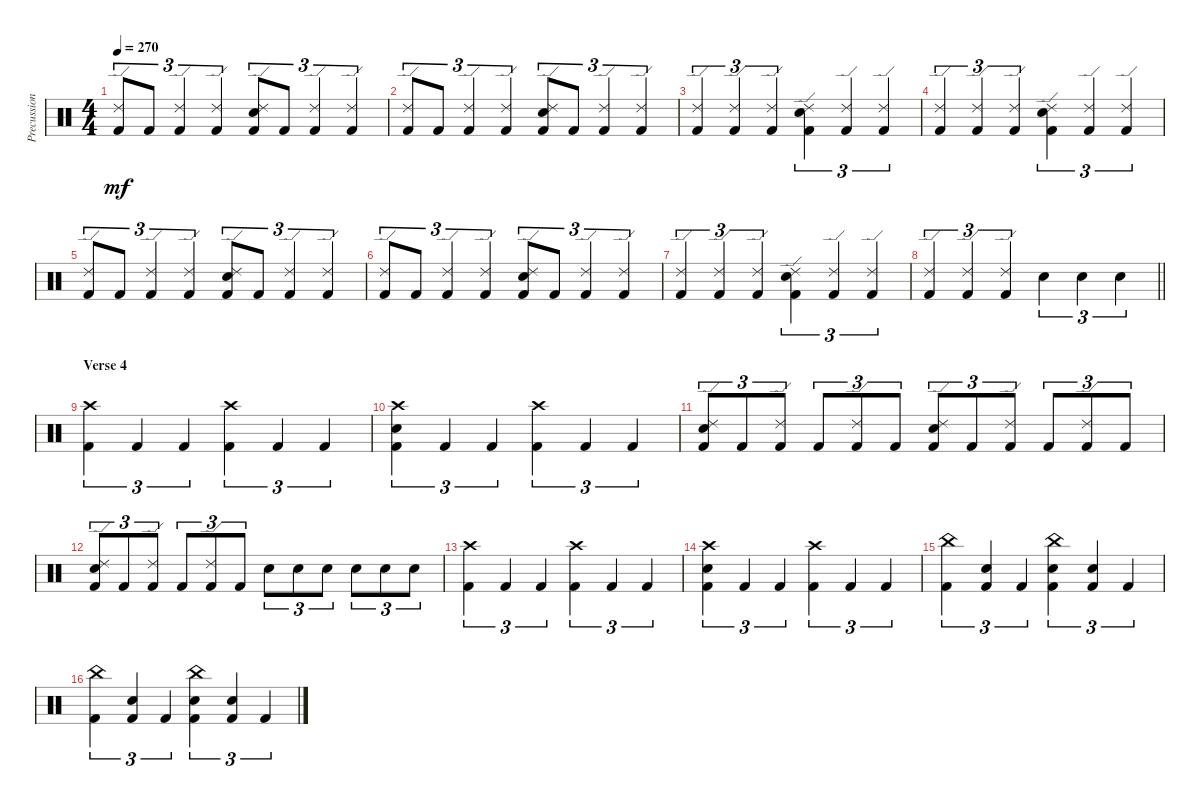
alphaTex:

\track ("Precussion" "Precussion") {instrument percussion}
\staff {score}
\articulation defaults
\ts (4 4)
\tempo 270
\clef neutral
\ks c
("Ride (edge) 2" "Kick (hit) 2").8{tu (3 2) dy mf} "Kick (hit) 2".8{tu (3 2)} ("Ride (edge) 2" "Kick (hit) 2").4{tu (3 2)} ("Ride (edge) 2" "Kick (hit) 2").4{tu (3 2)} ("Ride (edge) 2" "Electric Snare (hit)" "Kick (hit) 2").8{tu (3 2)} "Kick (hit) 2".8{tu (3 2)} ("Ride (edge) 2" "Kick (hit) 2").4{tu (3 2)} ("Ride (edge) 2" "Kick (hit) 2").4{tu (3 2)} |
("Ride (edge) 2" "Kick (hit) 2").8{tu (3 2)} "Kick (hit) 2".8{tu (3 2)} ("Ride (edge) 2" "Kick (hit) 2").4{tu (3 2)} ("Ride (edge) 2" "Kick (hit) 2").4{tu (3 2)} ("Ride (edge) 2" "Electric Snare (hit)" "Kick (hit) 2").8{tu (3 2)} "Kick (hit) 2".8{tu (3 2)} ("Ride (edge) 2" "Kick (hit) 2").4{tu (3 2)} ("Ride (edge) 2" "Kick (hit) 2").4{tu (3 2)} |
("Ride (edge) 2" "Kick (hit) 2").4{tu (3 2)} ("Ride (edge) 2" "Kick (hit) 2").4{tu (3 2)} ("Ride (edge) 2" "Kick (hit) 2").4{tu (3 2)} ("Ride (edge) 2" "Electric Snare (hit)" "Kick (hit) 2").4{tu (3 2)} ("Ride (edge) 2" "Kick (hit) 2").4{tu (3 2)} ("Ride (edge) 2" "Kick (hit) 2").4{tu (3 2)} |
("Ride (edge) 2" "Kick (hit) 2").4{tu (3 2)} ("Ride (edge) 2" "Kick (hit) 2").4{tu (3 2)} ("Ride (edge) 2" "Kick (hit) 2").4{tu (3 2)} ("Ride (edge) 2" "Electric Snare (hit)" "Kick (hit) 2").4{tu (3 2)} ("Ride (edge) 2" "Kick (hit) 2").4{tu (3 2)} ("Ride (edge) 2" "Kick (hit) 2").4{tu (3 2)} |
("Ride (edge) 2" "Kick (hit) 2").8{tu (3 2)} "Kick (hit) 2".8{tu (3 2)} ("Ride (edge) 2" "Kick (hit) 2").4{tu (3 2)} ("Ride (edge) 2" "Kick (hit) 2").4{tu (3 2)} ("Ride (edge) 2" "Electric Snare (hit)" "Kick (hit) 2").8{tu (3 2)} "Kick (hit) 2".8{tu (3 2)} ("Ride (edge) 2" "Kick (hit) 2").4{tu (3 2)} ("Ride (edge) 2" "Kick (hit) 2").4{tu (3 2)} |
("Ride (edge) 2" "Kick (hit) 2").8{tu (3 2)} "Kick (hit) 2".8{tu (3 2)} ("Ride (edge) 2" "Kick (hit) 2").4{tu (3 2)} ("Ride (edge) 2" "Kick (hit) 2").4{tu (3 2)} ("Ride (edge) 2" "Electric Snare (hit)" "Kick (hit) 2").8{tu (3 2)} "Kick (hit) 2".8{tu (3 2)} ("Ride (edge) 2" "Kick (hit) 2").4{tu (3 2)} ("Ride (edge) 2" "Kick (hit) 2").4{tu (3 2)} |
("Ride (edge) 2" "Kick (hit) 2").4{tu (3 2)} ("Ride (edge) 2" "Kick (hit) 2").4{tu (3 2)} ("Ride (edge) 2" "Kick (hit) 2").4{tu (3 2)} ("Ride (edge) 2" "Electric Snare (hit)" "Kick (hit) 2").4{tu (3 2)} ("Ride (edge) 2" "Kick (hit) 2").4{tu (3 2)} ("Ride (edge) 2" "Kick (hit) 2").4{tu (3 2)} |
\barLineRight lightlight
("Ride (edge) 2" "Kick (hit) 2").4{tu (3 2)} ("Ride (edge) 2" "Kick (hit) 2").4{tu (3 2)} ("Ride (edge) 2" "Kick (hit) 2").4{tu (3 2)} "Electric Snare (hit)".4{tu (3 2)} "Electric Snare (hit)".4{tu (3 2)} "Electric Snare (hit)".4{tu (3 2)} |
\section ("" "Verse 4")
("Crash high (hit)" "Kick (hit) 2").4{tu (3 2)} "Kick (hit) 2".4{tu (3 2)} "Kick (hit) 2".4{tu (3 2)} ("Crash high (hit)" "Kick (hit) 2").4{tu (3 2)} "Kick (hit) 2".4{tu (3 2)} "Kick (hit) 2".4{tu (3 2)} |
("Crash high (hit)" "Electric Snare (hit)" "Kick (hit) 2").4{tu (3 2)} "Kick (hit) 2".4{tu (3 2)} "Kick (hit) 2".4{tu (3 2)} ("Crash high (hit)" "Kick (hit) 2").4{tu (3 2)} "Kick (hit) 2".4{tu (3 2)} "Kick (hit) 2".4{tu (3 2)} |
("Ride (edge) 2" "Electric Snare (hit)" "Kick (hit) 2").8{tu (3 2)} "Kick (hit) 2".8{tu (3 2)} ("Ride (edge) 2" "Kick (hit) 2").8{tu (3 2)} "Kick (hit) 2".8{tu (3 2)} ("Ride (edge) 2" "Kick (hit) 2").8{tu (3 2)} "Kick (hit) 2".8{tu (3 2)} ("Ride (edge) 2" "Electric Snare (hit)" "Kick (hit) 2").8{tu (3 2)} "Kick (hit) 2".8{tu (3 2)} ("Ride (edge) 2" "Kick (hit) 2").8{tu (3 2)} "Kick (hit) 2".8{tu (3 2)} ("Ride (edge) 2" "Kick (hit) 2").8{tu (3 2)} "Kick (hit) 2".8{tu (3 2)} |
("Ride (edge) 2" "Electric Snare (hit)" "Kick (hit) 2").8{tu (3 2)} "Kick (hit) 2".8{tu (3 2)} ("Ride (edge) 2" "Kick (hit) 2").8{tu (3 2)} "Kick (hit) 2".8{tu (3 2)} ("Ride (edge) 2" "Kick (hit) 2").8{tu (3 2)} "Kick (hit) 2".8{tu (3 2)} "Electric Snare (hit)".8{tu (3 2)} "Electric Snare (hit)".8{tu (3 2)} "Electric Snare (hit)".8{tu (3 2)} "Electric Snare (hit)".8{tu (3 2)} "Electric Snare (hit)".8{tu (3 2)} "Electric Snare (hit)".8{tu (3 2)} |
("Crash high (hit)" "Kick (hit) 2").4{tu (3 2)} "Kick (hit) 2".4{tu (3 2)} "Kick (hit) 2".4{tu (3 2)} ("Crash high (hit)" "Kick (hit) 2").4{tu (3 2)} "Kick (hit) 2".4{tu (3 2)} "Kick (hit) 2".4{tu (3 2)} |
("Crash high (hit)" "Electric Snare (hit)" "Kick (hit) 2").4{tu (3 2)} "Kick (hit) 2".4{tu (3 2)} "Kick (hit) 2".4{tu (3 2)} ("Crash high (hit)" "Kick (hit) 2").4{tu (3 2)} "Kick (hit) 2".4{tu (3 2)} "Kick (hit) 2".4{tu (3 2)} |
("China (hit)" "Kick (hit) 2").4{tu (3 2)} ("Electric Snare (hit)" "Kick (hit) 2").4{tu (3 2)} "Kick (hit) 2".4{tu (3 2)} ("China (hit)" "Electric Snare (hit)" "Kick (hit) 2").4{tu (3 2)} ("Electric Snare (hit)" "Kick (hit) 2").4{tu (3 2)} "Kick (hit) 2".4{tu (3 2)} |
("China (hit)" "Kick (hit) 2").4{tu (3 2)} ("Electric Snare (hit)" "Kick (hit) 2").4{tu (3 2)} "Kick (hit) 2".4{tu (3 2)} ("China (hit)" "Electric Snare (hit)" "Kick (hit) 2").4{tu (3 2)} ("Electric Snare (hit)" "Kick (hit) 2").4{tu (3 2)} "Kick (hit) 2".4{tu (3 2)}
